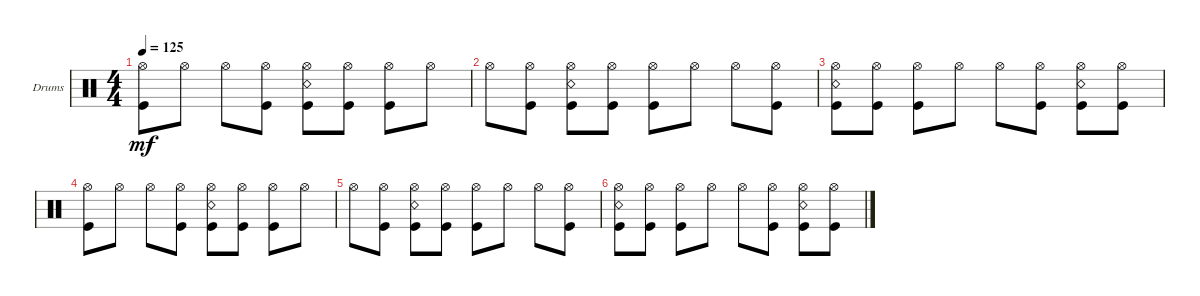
\bracketExtendMode groupsimilarinstruments
\firstSystemTrackNameOrientation horizontal
\otherSystemsTrackNameOrientation horizontal
\track ("Drums" "Drums") {instrument percussion}
\staff {score}
\articulation defaults
\ts (4 4)
\tempo 125
\clef neutral
\ks c
("Hi-Hat (open)" "Kick (hit)").8{dy mf} "Hi-Hat (open)".8 "Hi-Hat (open)".8 ("Hi-Hat (open)" "Kick (hit)").8 ("Hi-Hat (open)" "Kick (hit)" "Snare (rim shot)").8 ("Hi-Hat (open)" "Kick (hit)").8 ("Hi-Hat (open)" "Kick (hit)").8 "Hi-Hat (open)".8 |
"Hi-Hat (open)".8 ("Hi-Hat (open)" "Kick (hit)").8 ("Hi-Hat (open)" "Kick (hit)" "Snare (rim shot)").8 ("Hi-Hat (open)" "Kick (hit)").8 ("Hi-Hat (open)" "Kick (hit)").8 "Hi-Hat (open)".8 "Hi-Hat (open)".8 ("Hi-Hat (open)" "Kick (hit)").8 |
("Hi-Hat (open)" "Kick (hit)" "Snare (rim shot)").8 ("Hi-Hat (open)" "Kick (hit)").8 ("Hi-Hat (open)" "Kick (hit)").8 "Hi-Hat (open)".8 "Hi-Hat (open)".8 ("Hi-Hat (open)" "Kick (hit)").8 ("Hi-Hat (open)" "Kick (hit)" "Snare (rim shot)").8 ("Hi-Hat (open)" "Kick (hit)").8 |
("Hi-Hat (open)" "Kick (hit)").8 "Hi-Hat (open)".8 "Hi-Hat (open)".8 ("Hi-Hat (open)" "Kick (hit)").8 ("Hi-Hat (open)" "Kick (hit)" "Snare (rim shot)").8 ("Hi-Hat (open)" "Kick (hit)").8 ("Hi-Hat (open)" "Kick (hit)").8 "Hi-Hat (open)".8 |
"Hi-Hat (open)".8 ("Hi-Hat (open)" "Kick (hit)").8 ("Hi-Hat (open)" "Kick (hit)" "Snare (rim shot)").8 ("Hi-Hat (open)" "Kick (hit)").8 ("Hi-Hat (open)" "Kick (hit)").8 "Hi-Hat (open)".8 "Hi-Hat (open)".8 ("Hi-Hat (open)" "Kick (hit)").8 |
("Hi-Hat (open)" "Kick (hit)" "Snare (rim shot)").8 ("Hi-Hat (open)" "Kick (hit)").8 ("Hi-Hat (open)" "Kick (hit)").8 "Hi-Hat (open)".8 "Hi-Hat (open)".8 ("Hi-Hat (open)" "Kick (hit)").8 ("Hi-Hat (open)" "Kick (hit)" "Snare (rim shot)").8 ("Hi-Hat (open)" "Kick (hit)").8
